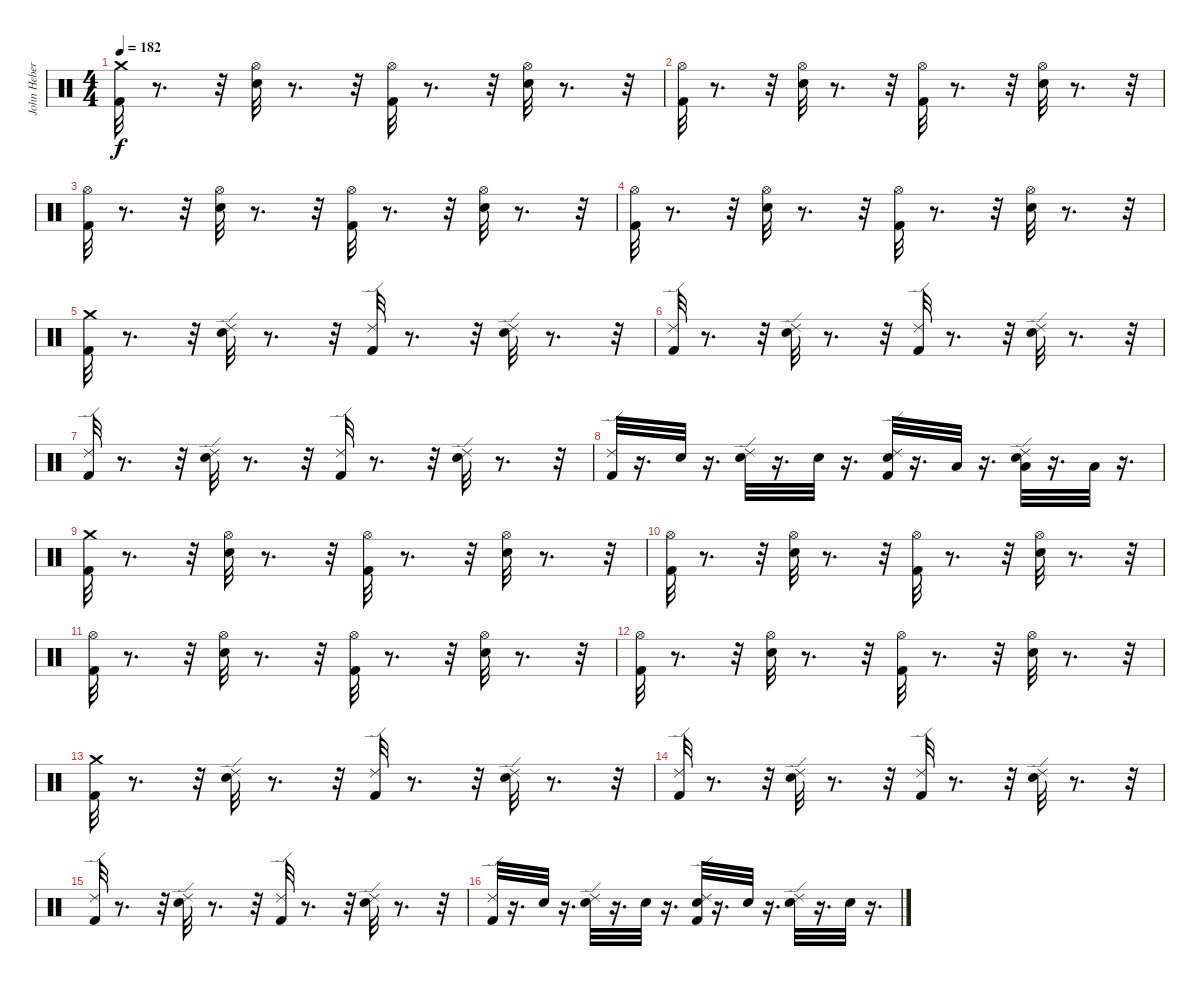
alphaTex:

\track ("John Hebert" "John Heber") {instrument percussion}
\staff {score}
\articulation defaults
\ts (4 4)
\tempo 182
\clef neutral
\ks c
("Kick (hit) 2" "Crash medium (hit)").32{dy f} r.8{d} r.32 ("Hi-Hat (open)" "Snare (hit) 2").32 r.8{d} r.32 ("Hi-Hat (open)" "Kick (hit) 2").32 r.8{d} r.32 ("Hi-Hat (open)" "Snare (hit) 2").32 r.8{d} r.32 |
("Hi-Hat (open)" "Kick (hit) 2").32 r.8{d} r.32 ("Snare (hit) 2" "Hi-Hat (open)").32 r.8{d} r.32 ("Kick (hit) 2" "Hi-Hat (open)").32 r.8{d} r.32 ("Snare (hit) 2" "Hi-Hat (open)").32 r.8{d} r.32 |
("Hi-Hat (open)" "Kick (hit) 2").32 r.8{d} r.32 ("Snare (hit) 2" "Hi-Hat (open)").32 r.8{d} r.32 ("Kick (hit) 2" "Hi-Hat (open)").32 r.8{d} r.32 ("Snare (hit) 2" "Hi-Hat (open)").32 r.8{d} r.32 |
("Hi-Hat (open)" "Kick (hit) 2").32 r.8{d} r.32 ("Snare (hit) 2" "Hi-Hat (open)").32 r.8{d} r.32 ("Kick (hit) 2" "Hi-Hat (open)").32 r.8{d} r.32 ("Snare (hit) 2" "Hi-Hat (open)").32 r.8{d} r.32 |
("Kick (hit) 2" "Crash medium (hit)").32 r.8{d} r.32 ("Ride (edge) 2" "Snare (hit) 2").32 r.8{d} r.32 ("Ride (edge) 2" "Kick (hit) 2").32 r.8{d} r.32 ("Ride (edge) 2" "Snare (hit) 2").32 r.8{d} r.32 |
("Ride (edge) 2" "Kick (hit) 2").32 r.8{d} r.32 ("Snare (hit) 2" "Ride (edge) 2").32 r.8{d} r.32 ("Kick (hit) 2" "Ride (edge) 2").32 r.8{d} r.32 ("Snare (hit) 2" "Ride (edge) 2").32 r.8{d} r.32 |
("Ride (edge) 2" "Kick (hit) 2").32 r.8{d} r.32 ("Snare (hit) 2" "Ride (edge) 2").32 r.8{d} r.32 ("Kick (hit) 2" "Ride (edge) 2").32 r.8{d} r.32 ("Snare (hit) 2" "Ride (edge) 2").32 r.8{d} r.32 |
("Ride (edge) 2" "Kick (hit) 2").32 r.16{d} "Snare (hit) 2".32 r.16{d} ("Snare (hit) 2" "Ride (edge) 2").32 r.16{d} "Snare (hit) 2".32 r.16{d} ("Snare (hit) 2" "Kick (hit) 2" "Ride (edge) 2").32 r.16{d} "Low Tom (hit)".32 r.16{d} ("Low Tom (hit)" "Snare (hit) 2" "Ride (edge) 2").32 r.16{d} "Low Tom (hit)".32 r.16{d} |
("Kick (hit) 2" "Crash medium (hit)").32 r.8{d} r.32 ("Hi-Hat (open)" "Snare (hit) 2").32 r.8{d} r.32 ("Hi-Hat (open)" "Kick (hit) 2").32 r.8{d} r.32 ("Hi-Hat (open)" "Snare (hit) 2").32 r.8{d} r.32 |
("Hi-Hat (open)" "Kick (hit) 2").32 r.8{d} r.32 ("Snare (hit) 2" "Hi-Hat (open)").32 r.8{d} r.32 ("Kick (hit) 2" "Hi-Hat (open)").32 r.8{d} r.32 ("Snare (hit) 2" "Hi-Hat (open)").32 r.8{d} r.32 |
("Hi-Hat (open)" "Kick (hit) 2").32 r.8{d} r.32 ("Snare (hit) 2" "Hi-Hat (open)").32 r.8{d} r.32 ("Kick (hit) 2" "Hi-Hat (open)").32 r.8{d} r.32 ("Snare (hit) 2" "Hi-Hat (open)").32 r.8{d} r.32 |
("Hi-Hat (open)" "Kick (hit) 2").32 r.8{d} r.32 ("Snare (hit) 2" "Hi-Hat (open)").32 r.8{d} r.32 ("Kick (hit) 2" "Hi-Hat (open)").32 r.8{d} r.32 ("Snare (hit) 2" "Hi-Hat (open)").32 r.8{d} r.32 |
("Kick (hit) 2" "Crash medium (hit)").32 r.8{d} r.32 ("Ride (edge) 2" "Snare (hit) 2").32 r.8{d} r.32 ("Ride (edge) 2" "Kick (hit) 2").32 r.8{d} r.32 ("Ride (edge) 2" "Snare (hit) 2").32 r.8{d} r.32 |
("Ride (edge) 2" "Kick (hit) 2").32 r.8{d} r.32 ("Snare (hit) 2" "Ride (edge) 2").32 r.8{d} r.32 ("Kick (hit) 2" "Ride (edge) 2").32 r.8{d} r.32 ("Snare (hit) 2" "Ride (edge) 2").32 r.8{d} r.32 |
("Ride (edge) 2" "Kick (hit) 2").32 r.8{d} r.32 ("Snare (hit) 2" "Ride (edge) 2").32 r.8{d} r.32 ("Kick (hit) 2" "Ride (edge) 2").32 r.8{d} r.32 ("Snare (hit) 2" "Ride (edge) 2").32 r.8{d} r.32 |
("Ride (edge) 2" "Kick (hit) 2").32 r.16{d} "Snare (hit) 2".32 r.16{d} ("Snare (hit) 2" "Ride (edge) 2").32 r.16{d} "Snare (hit) 2".32 r.16{d} ("Snare (hit) 2" "Kick (hit) 2" "Ride (edge) 2").32 r.16{d} "Snare (hit) 2".32 r.16{d} ("Snare (hit) 2" "Ride (edge) 2").32 r.16{d} "Snare (hit) 2".32 r.16{d}
